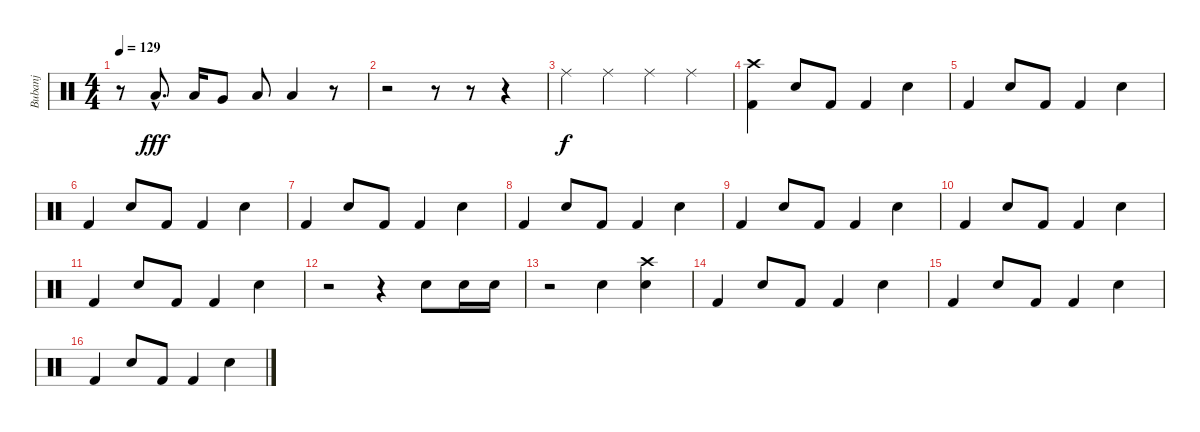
\track ("Bubanj" "Bubanj") {instrument percussion}
\staff {score}
\articulation defaults
\ts (4 4)
\tempo 129
\clef neutral
\ks c
r.8{dy fff} "Low Floor Tom (hit)"{hac}.8{d} "Low Floor Tom (hit)".16 "Very Low Tom (hit)".8 "Low Floor Tom (hit)".8 "Low Floor Tom (hit)".4 r.8 |
r.2 r.8 r.8 r.4 |
"Ride (middle)".4{dy f} "Ride (middle)".4 "Ride (middle)".4 "Ride (middle)".4 |
("Crash high (hit)" "Kick (hit) 2").4 "Electric Snare (hit)".8 "Kick (hit) 2".8 "Kick (hit) 2".4 "Electric Snare (hit)".4 |
"Kick (hit) 2".4 "Electric Snare (hit)".8 "Kick (hit) 2".8 "Kick (hit) 2".4 "Electric Snare (hit)".4 |
"Kick (hit) 2".4 "Electric Snare (hit)".8 "Kick (hit) 2".8 "Kick (hit) 2".4 "Electric Snare (hit)".4 |
"Kick (hit) 2".4 "Electric Snare (hit)".8 "Kick (hit) 2".8 "Kick (hit) 2".4 "Electric Snare (hit)".4 |
"Kick (hit) 2".4 "Electric Snare (hit)".8 "Kick (hit) 2".8 "Kick (hit) 2".4 "Electric Snare (hit)".4 |
"Kick (hit) 2".4 "Electric Snare (hit)".8 "Kick (hit) 2".8 "Kick (hit) 2".4 "Electric Snare (hit)".4 |
"Kick (hit) 2".4 "Electric Snare (hit)".8 "Kick (hit) 2".8 "Kick (hit) 2".4 "Electric Snare (hit)".4 |
"Kick (hit) 2".4 "Electric Snare (hit)".8 "Kick (hit) 2".8 "Kick (hit) 2".4 "Electric Snare (hit)".4 |
r.2 r.4 "Electric Snare (hit)".8 "Electric Snare (hit)".16 "Electric Snare (hit)".16 |
r.2 "Electric Snare (hit)".4 ("Electric Snare (hit)" "Crash high (hit)").4 |
"Kick (hit) 2".4 "Electric Snare (hit)".8 "Kick (hit) 2".8 "Kick (hit) 2".4 "Electric Snare (hit)".4 |
"Kick (hit) 2".4 "Electric Snare (hit)".8 "Kick (hit) 2".8 "Kick (hit) 2".4 "Electric Snare (hit)".4 |
"Kick (hit) 2".4 "Electric Snare (hit)".8 "Kick (hit) 2".8 "Kick (hit) 2".4 "Electric Snare (hit)".4
